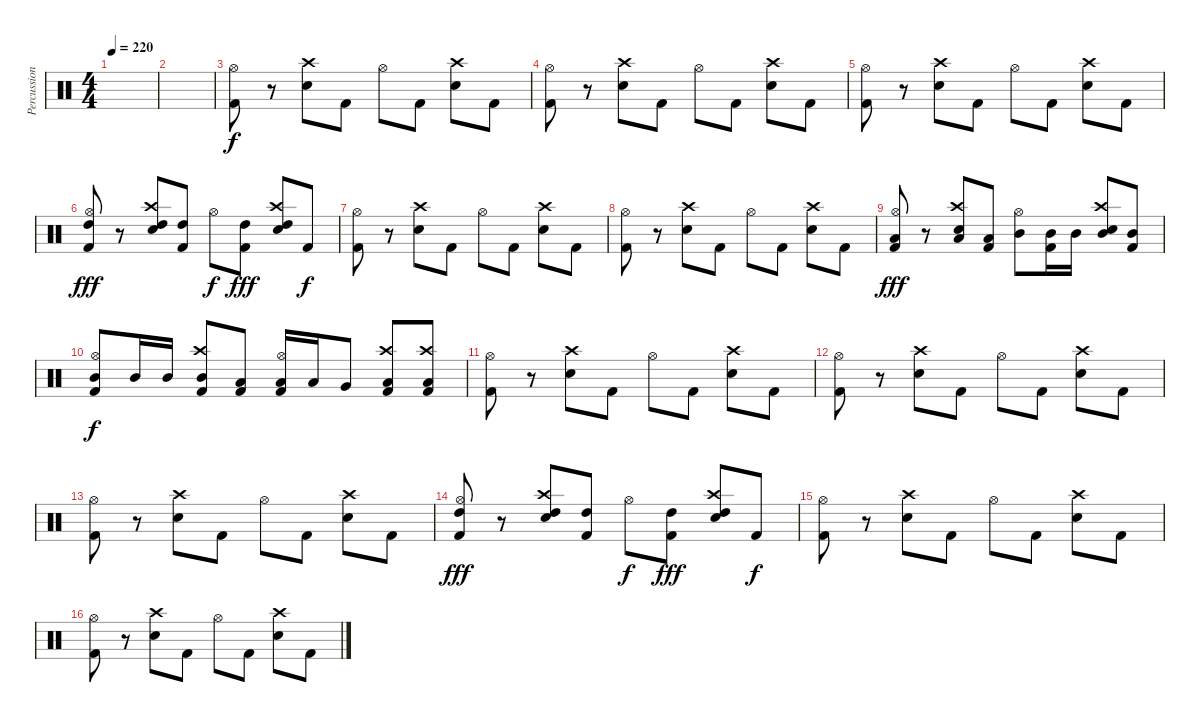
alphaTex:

\track ("Percussion" "Percussion") {instrument percussion}
\staff {score}
\articulation defaults
\ts (4 4)
\tempo 220
\clef neutral
\ks c
|
|
("Kick (hit) 2" "Hi-Hat (open)").8 r.8 ("Snare (hit) 2" "Crash high (hit)").8 "Kick (hit) 2".8 "Hi-Hat (open)".8 "Kick (hit) 2".8 ("Snare (hit) 2" "Crash high (hit)").8 "Kick (hit) 2".8 |
("Kick (hit) 2" "Hi-Hat (open)").8 r.8 ("Snare (hit) 2" "Crash high (hit)").8 "Kick (hit) 2".8 "Hi-Hat (open)".8 "Kick (hit) 2".8 ("Snare (hit) 2" "Crash high (hit)").8 "Kick (hit) 2".8 |
("Kick (hit) 2" "Hi-Hat (open)").8 r.8 ("Snare (hit) 2" "Crash high (hit)").8 "Kick (hit) 2".8 "Hi-Hat (open)".8 "Kick (hit) 2".8 ("Snare (hit) 2" "Crash high (hit)").8 "Kick (hit) 2".8 |
("Kick (hit) 2" "High Tom (hit)" "Hi-Hat (open)").8{dy fff} r.8 ("Snare (hit) 2" "High Tom (hit)" "Crash high (hit)").8 ("Kick (hit) 2" "High Tom (hit)").8 "Hi-Hat (open)".8{dy f} ("Kick (hit) 2" "High Tom (hit)").8{dy fff} ("Snare (hit) 2" "High Tom (hit)" "Crash high (hit)").8 "Kick (hit) 2".8{dy f} |
("Kick (hit) 2" "Hi-Hat (open)").8 r.8 ("Snare (hit) 2" "Crash high (hit)").8 "Kick (hit) 2".8 "Hi-Hat (open)".8 "Kick (hit) 2".8 ("Snare (hit) 2" "Crash high (hit)").8 "Kick (hit) 2".8 |
("Kick (hit) 2" "Hi-Hat (open)").8 r.8 ("Snare (hit) 2" "Crash high (hit)").8 "Kick (hit) 2".8 "Hi-Hat (open)".8 "Kick (hit) 2".8 ("Snare (hit) 2" "Crash high (hit)").8 "Kick (hit) 2".8 |
("Kick (hit) 2" "Low Tom (hit)" "Hi-Hat (open)").8{dy fff} r.8 ("Snare (hit) 2" "Low Tom (hit)" "Crash high (hit)").8 ("Kick (hit) 2" "Low Tom (hit)").8 ("Mid Tom (hit)" "Hi-Hat (open)").8 ("Kick (hit) 2" "Mid Tom (hit)").16 "Mid Tom (hit)".16 ("Snare (hit) 2" "Mid Tom (hit)" "Crash high (hit)").8 ("Kick (hit) 2" "Mid Tom (hit)").8 |
("Mid Tom (hit)" "Hi-Hat (open)" "Kick (hit) 2").8{dy f} "Mid Tom (hit)".16 "Mid Tom (hit)".16 ("Mid Tom (hit)" "Crash high (hit)" "Kick (hit) 2").8 ("Low Tom (hit)" "Kick (hit) 2").8 ("Low Tom (hit)" "Hi-Hat (open)" "Kick (hit) 2").16 "Low Tom (hit)".16 "Very Low Tom (hit)".8 ("Low Tom (hit)" "Crash high (hit)" "Kick (hit) 2").8 ("Low Floor Tom (hit)" "Crash high (hit)" "Kick (hit) 2").8 |
("Kick (hit) 2" "Hi-Hat (open)").8 r.8 ("Snare (hit) 2" "Crash high (hit)").8 "Kick (hit) 2".8 "Hi-Hat (open)".8 "Kick (hit) 2".8 ("Snare (hit) 2" "Crash high (hit)").8 "Kick (hit) 2".8 |
("Kick (hit) 2" "Hi-Hat (open)").8 r.8 ("Snare (hit) 2" "Crash high (hit)").8 "Kick (hit) 2".8 "Hi-Hat (open)".8 "Kick (hit) 2".8 ("Snare (hit) 2" "Crash high (hit)").8 "Kick (hit) 2".8 |
("Kick (hit) 2" "Hi-Hat (open)").8 r.8 ("Snare (hit) 2" "Crash high (hit)").8 "Kick (hit) 2".8 "Hi-Hat (open)".8 "Kick (hit) 2".8 ("Snare (hit) 2" "Crash high (hit)").8 "Kick (hit) 2".8 |
("Kick (hit) 2" "High Tom (hit)" "Hi-Hat (open)").8{dy fff} r.8 ("Snare (hit) 2" "High Tom (hit)" "Crash high (hit)").8 ("Kick (hit) 2" "High Tom (hit)").8 "Hi-Hat (open)".8{dy f} ("Kick (hit) 2" "High Tom (hit)").8{dy fff} ("Snare (hit) 2" "High Tom (hit)" "Crash high (hit)").8 "Kick (hit) 2".8{dy f} |
("Kick (hit) 2" "Hi-Hat (open)").8 r.8 ("Snare (hit) 2" "Crash high (hit)").8 "Kick (hit) 2".8 "Hi-Hat (open)".8 "Kick (hit) 2".8 ("Snare (hit) 2" "Crash high (hit)").8 "Kick (hit) 2".8 |
("Kick (hit) 2" "Hi-Hat (open)").8 r.8 ("Snare (hit) 2" "Crash high (hit)").8 "Kick (hit) 2".8 "Hi-Hat (open)".8 "Kick (hit) 2".8 ("Snare (hit) 2" "Crash high (hit)").8 "Kick (hit) 2".8
